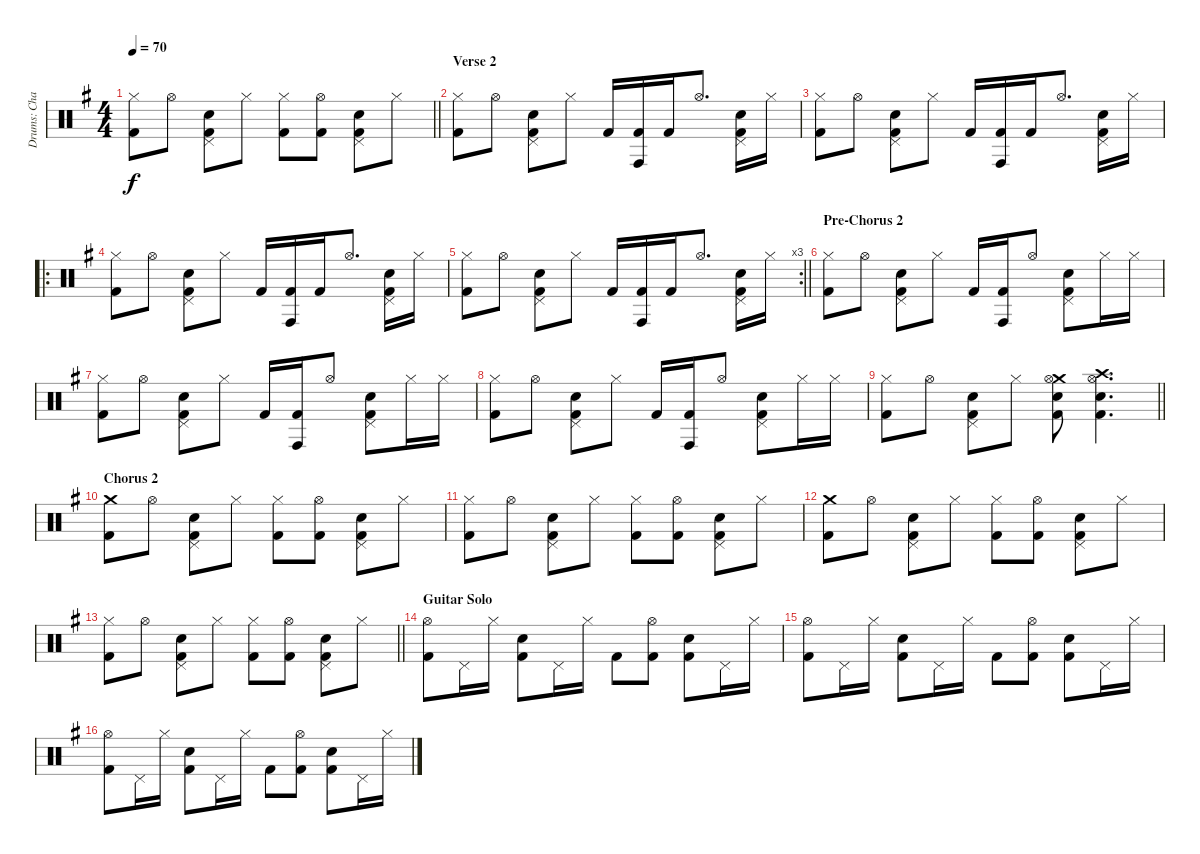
\track ("Drums: Charlie Allen Martin" "Drums: Cha") {instrument percussion}
\staff {score}
\articulation defaults
\ts (4 4)
\tempo 70
\clef neutral
\barLineRight lightlight
\ks g
("Hi-Hat (closed)" "Kick (hit) 2").8{dy f} "Hi-Hat (open)".8 ("Pedal Hi-Hat (hit)" "Snare (hit) 2" "Kick (hit) 2").8 "Hi-Hat (closed)".8 ("Hi-Hat (closed)" "Kick (hit) 2").8 ("Hi-Hat (open)" "Kick (hit) 2").8 ("Pedal Hi-Hat (hit)" "Snare (hit) 2" "Kick (hit) 2").8 "Hi-Hat (closed)".8 |
\section ("" "Verse 2")
("Hi-Hat (closed)" "Kick (hit) 2").8 "Hi-Hat (open)".8 ("Pedal Hi-Hat (hit)" "Snare (hit) 2" "Kick (hit) 2").8 "Hi-Hat (closed)".8 "Kick (hit) 2".16 ("Conga high (hit)" "Kick (hit) 2").16 "Kick (hit) 2".16 "Hi-Hat (open)".8{d} ("Pedal Hi-Hat (hit)" "Snare (hit) 2" "Kick (hit) 2").16 "Hi-Hat (closed)".16 |
("Hi-Hat (closed)" "Kick (hit) 2").8 "Hi-Hat (open)".8 ("Pedal Hi-Hat (hit)" "Snare (hit) 2" "Kick (hit) 2").8 "Hi-Hat (closed)".8 "Kick (hit) 2".16 ("Conga high (hit)" "Kick (hit) 2").16 "Kick (hit) 2".16 "Hi-Hat (open)".8{d} ("Pedal Hi-Hat (hit)" "Snare (hit) 2" "Kick (hit) 2").16 "Hi-Hat (closed)".16 |
\ro
("Hi-Hat (closed)" "Kick (hit) 2").8 "Hi-Hat (open)".8 ("Pedal Hi-Hat (hit)" "Snare (hit) 2" "Kick (hit) 2").8 "Hi-Hat (closed)".8 "Kick (hit) 2".16 ("Conga high (hit)" "Kick (hit) 2").16 "Kick (hit) 2".16 "Hi-Hat (open)".8{d} ("Pedal Hi-Hat (hit)" "Snare (hit) 2" "Kick (hit) 2").16 "Hi-Hat (closed)".16 |
\rc 3
\barLineRight lightlight
("Hi-Hat (closed)" "Kick (hit) 2").8 "Hi-Hat (open)".8 ("Pedal Hi-Hat (hit)" "Snare (hit) 2" "Kick (hit) 2").8 "Hi-Hat (closed)".8 "Kick (hit) 2".16 ("Conga high (hit)" "Kick (hit) 2").16 "Kick (hit) 2".16 "Hi-Hat (open)".8{d} ("Pedal Hi-Hat (hit)" "Snare (hit) 2" "Kick (hit) 2").16 "Hi-Hat (closed)".16 |
\section ("" "Pre-Chorus 2")
("Hi-Hat (closed)" "Kick (hit) 2").8 "Hi-Hat (open)".8 ("Pedal Hi-Hat (hit)" "Snare (hit) 2" "Kick (hit) 2").8 "Hi-Hat (closed)".8 "Kick (hit) 2".16 ("Conga high (hit)" "Kick (hit) 2").16 "Hi-Hat (open)".8 ("Pedal Hi-Hat (hit)" "Snare (hit) 2" "Kick (hit) 2").8 "Hi-Hat (closed)".16 "Hi-Hat (closed)".16 |
("Hi-Hat (closed)" "Kick (hit) 2").8 "Hi-Hat (open)".8 ("Pedal Hi-Hat (hit)" "Snare (hit) 2" "Kick (hit) 2").8 "Hi-Hat (closed)".8 "Kick (hit) 2".16 ("Conga high (hit)" "Kick (hit) 2").16 "Hi-Hat (open)".8 ("Pedal Hi-Hat (hit)" "Snare (hit) 2" "Kick (hit) 2").8 "Hi-Hat (closed)".16 "Hi-Hat (closed)".16 |
("Hi-Hat (closed)" "Kick (hit) 2").8 "Hi-Hat (open)".8 ("Pedal Hi-Hat (hit)" "Snare (hit) 2" "Kick (hit) 2").8 "Hi-Hat (closed)".8 "Kick (hit) 2".16 ("Conga high (hit)" "Kick (hit) 2").16 "Hi-Hat (open)".8 ("Pedal Hi-Hat (hit)" "Snare (hit) 2" "Kick (hit) 2").8 "Hi-Hat (closed)".16 "Hi-Hat (closed)".16 |
\barLineRight lightlight
("Hi-Hat (closed)" "Kick (hit) 2").8 "Hi-Hat (open)".8 ("Pedal Hi-Hat (hit)" "Snare (hit) 2" "Kick (hit) 2").8 "Hi-Hat (closed)".8 ("Crash medium (hit)" "Hi-Hat (open)" "Snare (hit) 2" "Kick (hit) 2").8 ("Crash high (hit)" "Hi-Hat (open)" "Snare (hit) 2" "Kick (hit) 2").4{d} |
\section ("" "Chorus 2")
("Crash medium (hit)" "Kick (hit) 2").8 "Hi-Hat (open)".8 ("Pedal Hi-Hat (hit)" "Snare (hit) 2" "Kick (hit) 2").8 "Hi-Hat (closed)".8 ("Hi-Hat (closed)" "Kick (hit) 2").8 ("Hi-Hat (open)" "Kick (hit) 2").8 ("Pedal Hi-Hat (hit)" "Snare (hit) 2" "Kick (hit) 2").8 "Hi-Hat (closed)".8 |
("Hi-Hat (closed)" "Kick (hit) 2").8 "Hi-Hat (open)".8 ("Pedal Hi-Hat (hit)" "Snare (hit) 2" "Kick (hit) 2").8 "Hi-Hat (closed)".8 ("Hi-Hat (closed)" "Kick (hit) 2").8 ("Hi-Hat (open)" "Kick (hit) 2").8 ("Pedal Hi-Hat (hit)" "Snare (hit) 2" "Kick (hit) 2").8 "Hi-Hat (closed)".8 |
("Crash medium (hit)" "Kick (hit) 2").8 "Hi-Hat (open)".8 ("Pedal Hi-Hat (hit)" "Snare (hit) 2" "Kick (hit) 2").8 "Hi-Hat (closed)".8 ("Hi-Hat (closed)" "Kick (hit) 2").8 ("Hi-Hat (open)" "Kick (hit) 2").8 ("Pedal Hi-Hat (hit)" "Snare (hit) 2" "Kick (hit) 2").8 "Hi-Hat (closed)".8 |
\barLineRight lightlight
("Hi-Hat (closed)" "Kick (hit) 2").8 "Hi-Hat (open)".8 ("Pedal Hi-Hat (hit)" "Snare (hit) 2" "Kick (hit) 2").8 "Hi-Hat (closed)".8 ("Hi-Hat (closed)" "Kick (hit) 2").8 ("Hi-Hat (open)" "Kick (hit) 2").8 ("Pedal Hi-Hat (hit)" "Snare (hit) 2" "Kick (hit) 2").8 "Hi-Hat (closed)".8 |
\section ("" "Guitar Solo")
("Hi-Hat (open)" "Kick (hit) 2").8 "Pedal Hi-Hat (hit)".16 "Hi-Hat (closed)".16 ("Snare (hit) 2" "Kick (hit) 2").8 "Pedal Hi-Hat (hit)".16 "Hi-Hat (closed)".16 "Kick (hit) 2".8 ("Hi-Hat (open)" "Kick (hit) 2").8 ("Snare (hit) 2" "Kick (hit) 2").8 "Pedal Hi-Hat (hit)".16 "Hi-Hat (closed)".16 |
("Hi-Hat (open)" "Kick (hit) 2").8 "Pedal Hi-Hat (hit)".16 "Hi-Hat (closed)".16 ("Snare (hit) 2" "Kick (hit) 2").8 "Pedal Hi-Hat (hit)".16 "Hi-Hat (closed)".16 "Kick (hit) 2".8 ("Hi-Hat (open)" "Kick (hit) 2").8 ("Snare (hit) 2" "Kick (hit) 2").8 "Pedal Hi-Hat (hit)".16 "Hi-Hat (closed)".16 |
("Hi-Hat (open)" "Kick (hit) 2").8 "Pedal Hi-Hat (hit)".16 "Hi-Hat (closed)".16 ("Snare (hit) 2" "Kick (hit) 2").8 "Pedal Hi-Hat (hit)".16 "Hi-Hat (closed)".16 "Kick (hit) 2".8 ("Hi-Hat (open)" "Kick (hit) 2").8 ("Snare (hit) 2" "Kick (hit) 2").8 "Pedal Hi-Hat (hit)".16 "Hi-Hat (closed)".16
